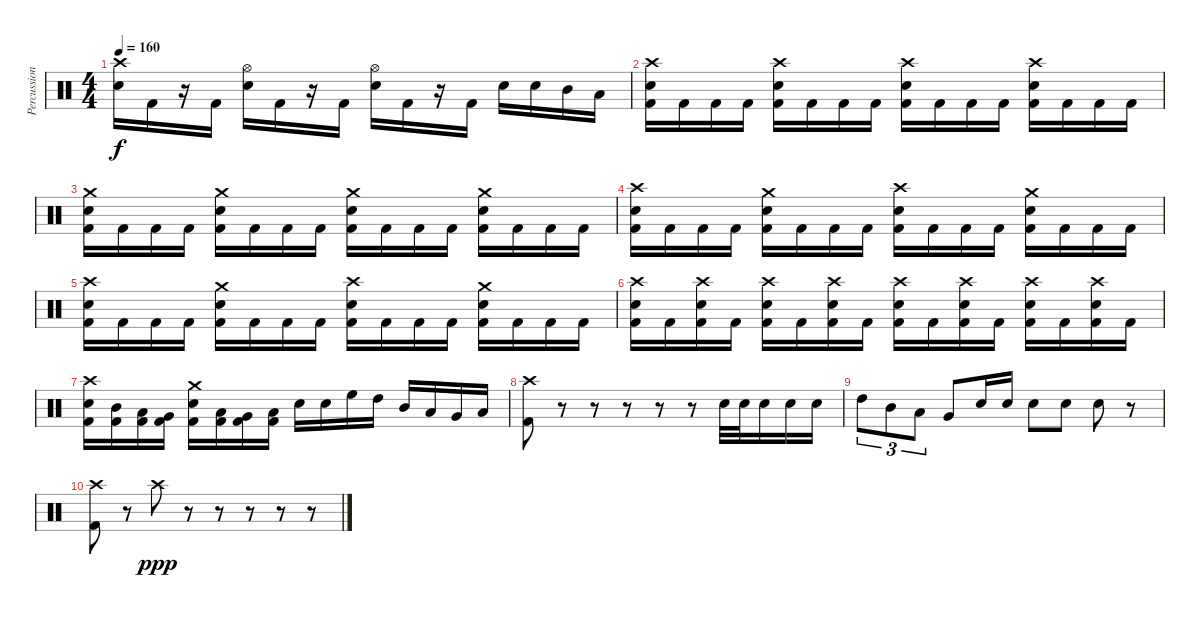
\track ("Percussion" "Percussion") {instrument percussion}
\staff {score}
\articulation defaults
\ts (4 4)
\tempo 160
\clef neutral
\ks c
("Crash high (hit)" "Snare (hit) 2").16{dy f} "Kick (hit) 2".16 r.16 "Kick (hit) 2".16 ("Hi-Hat (open)" "Snare (hit) 2").16 "Kick (hit) 2".16 r.16 "Kick (hit) 2".16 ("Hi-Hat (open)" "Snare (hit) 2").16 "Kick (hit) 2".16 r.16 "Kick (hit) 2".16 "Snare (hit) 2".16 "Snare (hit) 2".16 "Mid Tom (hit)".16 "Low Tom (hit)".16 |
("Crash high (hit)" "Snare (hit) 2" "Kick (hit) 2").16 "Kick (hit) 2".16 "Kick (hit) 2".16 "Kick (hit) 2".16 ("Crash high (hit)" "Snare (hit) 2" "Kick (hit) 2").16 "Kick (hit) 2".16 "Kick (hit) 2".16 "Kick (hit) 2".16 ("Crash high (hit)" "Snare (hit) 2" "Kick (hit) 2").16 "Kick (hit) 2".16 "Kick (hit) 2".16 "Kick (hit) 2".16 ("Crash high (hit)" "Snare (hit) 2" "Kick (hit) 2").16 "Kick (hit) 2".16 "Kick (hit) 2".16 "Kick (hit) 2".16 |
("Crash medium (hit)" "Snare (hit) 2" "Kick (hit) 2").16 "Kick (hit) 2".16 "Kick (hit) 2".16 "Kick (hit) 2".16 ("Crash medium (hit)" "Snare (hit) 2" "Kick (hit) 2").16 "Kick (hit) 2".16 "Kick (hit) 2".16 "Kick (hit) 2".16 ("Crash medium (hit)" "Snare (hit) 2" "Kick (hit) 2").16 "Kick (hit) 2".16 "Kick (hit) 2".16 "Kick (hit) 2".16 ("Crash medium (hit)" "Snare (hit) 2" "Kick (hit) 2").16 "Kick (hit) 2".16 "Kick (hit) 2".16 "Kick (hit) 2".16 |
("Crash high (hit)" "Snare (hit) 2" "Kick (hit) 2").16 "Kick (hit) 2".16 "Kick (hit) 2".16 "Kick (hit) 2".16 ("Crash medium (hit)" "Snare (hit) 2" "Kick (hit) 2").16 "Kick (hit) 2".16 "Kick (hit) 2".16 "Kick (hit) 2".16 ("Crash high (hit)" "Snare (hit) 2" "Kick (hit) 2").16 "Kick (hit) 2".16 "Kick (hit) 2".16 "Kick (hit) 2".16 ("Crash medium (hit)" "Snare (hit) 2" "Kick (hit) 2").16 "Kick (hit) 2".16 "Kick (hit) 2".16 "Kick (hit) 2".16 |
("Crash high (hit)" "Snare (hit) 2" "Kick (hit) 2").16 "Kick (hit) 2".16 "Kick (hit) 2".16 "Kick (hit) 2".16 ("Crash medium (hit)" "Snare (hit) 2" "Kick (hit) 2").16 "Kick (hit) 2".16 "Kick (hit) 2".16 "Kick (hit) 2".16 ("Crash high (hit)" "Snare (hit) 2" "Kick (hit) 2").16 "Kick (hit) 2".16 "Kick (hit) 2".16 "Kick (hit) 2".16 ("Crash medium (hit)" "Snare (hit) 2" "Kick (hit) 2").16 "Kick (hit) 2".16 "Kick (hit) 2".16 "Kick (hit) 2".16 |
("Crash high (hit)" "Snare (hit) 2" "Kick (hit) 2").16 "Kick (hit) 2".16 ("Crash high (hit)" "Snare (hit) 2" "Kick (hit) 2").16 "Kick (hit) 2".16 ("Crash high (hit)" "Snare (hit) 2" "Kick (hit) 2").16 "Kick (hit) 2".16 ("Crash high (hit)" "Snare (hit) 2" "Kick (hit) 2").16 "Kick (hit) 2".16 ("Crash high (hit)" "Snare (hit) 2" "Kick (hit) 2").16 "Kick (hit) 2".16 ("Crash high (hit)" "Snare (hit) 2" "Kick (hit) 2").16 "Kick (hit) 2".16 ("Crash high (hit)" "Snare (hit) 2" "Kick (hit) 2").16 "Kick (hit) 2".16 ("Crash high (hit)" "Snare (hit) 2" "Kick (hit) 2").16 "Kick (hit) 2".16 |
("Crash high (hit)" "Snare (hit) 2" "Kick (hit) 2").16 ("Mid Tom (hit)" "Kick (hit) 2").16 ("Low Tom (hit)" "Kick (hit) 2").16 ("Very Low Tom (hit)" "Kick (hit) 2").16 ("Crash medium (hit)" "Snare (hit) 2" "Kick (hit) 2").16 ("Low Tom (hit)" "Kick (hit) 2").16 ("Very Low Tom (hit)" "Kick (hit) 2").16 ("Low Floor Tom (hit)" "Kick (hit) 2").16 "Snare (hit) 2".16 "Snare (hit) 2".16 "High Floor Tom (hit)".16 "High Tom (hit)".16 "Mid Tom (hit)".16 "Low Tom (hit)".16 "Very Low Tom (hit)".16 "Low Floor Tom (hit)".16 |
("Crash high (hit)" "Kick (hit) 2").8 r.8 r.8 r.8 r.8 r.8 "Snare (hit) 2".32 "Snare (hit) 2".32 "Snare (hit) 2".16 "Snare (hit) 2".16 "Snare (hit) 2".16 |
"High Tom (hit)".8{tu (3 2)} "Mid Tom (hit)".8{tu (3 2)} "Low Tom (hit)".8{tu (3 2)} "Very Low Tom (hit)".8 "Snare (hit) 2".16 "Snare (hit) 2".16 "Snare (hit) 2".8 "Snare (hit) 2".8 "Snare (hit) 2".8 r.8 |
("Crash high (hit)" "Kick (hit) 2").8 r.8 "Crash high (hit)".8{dy ppp} r.8 r.8 r.8 r.8 r.8
